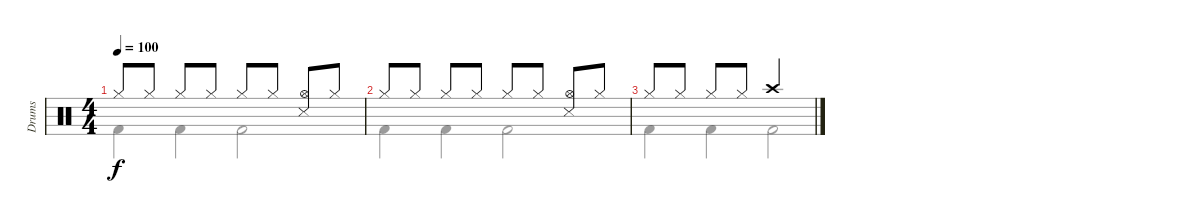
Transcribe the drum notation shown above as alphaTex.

\track ("Drums" "Drums") {instrument percussion}
\staff {score}
\articulation defaults
\voice
\ts (4 4)
\tempo 100
\clef neutral
\ks c "Hi-Hat (closed)".8{dy f} "Hi-Hat (closed)".8 "Hi-Hat (closed)".8 "Hi-Hat (closed)".8 "Hi-Hat (closed)".8 "Hi-Hat (closed)".8
("Hi-Hat (open)" "Snare (side stick) 3").8 "Hi-Hat (closed)".8 |
"Hi-Hat (closed)".8 "Hi-Hat (closed)".8 "Hi-Hat (closed)".8 "Hi-Hat (closed)".8 "Hi-Hat (closed)".8 "Hi-Hat (closed)".8 ("Hi-Hat (open)" "Snare (side stick) 3").8 "Hi-Hat (closed)".8 |
"Hi-Hat (closed)".8 "Hi-Hat (closed)".8 "Hi-Hat (closed)".8 "Hi-Hat (closed)".8 "Crash high (hit)".2
\voice
\clef neutral
\ottava regular
\simile none
\ks c "Kick (hit) 2".4{dy f} "Kick (hit) 2".4 "Kick (hit) 2".2
|
"Kick (hit) 2".4 "Kick (hit) 2".4 "Kick (hit) 2".2 |
"Kick (hit) 2".4 "Kick (hit) 2".4 "Kick (hit) 2".2
